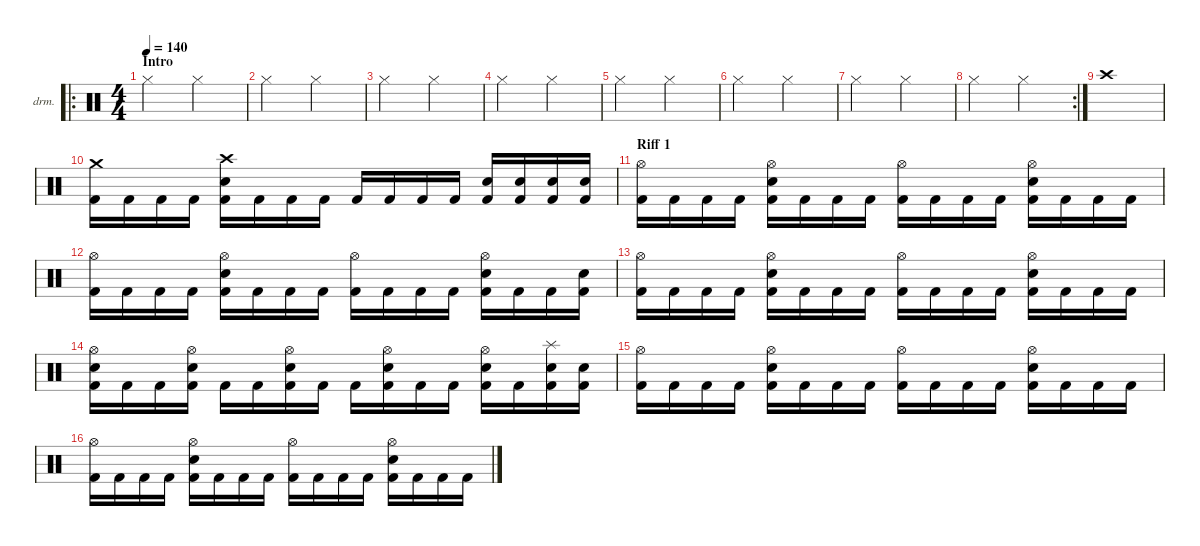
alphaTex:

\defaultSystemsLayout 4
\hideDynamics
\bracketExtendMode nobrackets
\firstSystemTrackNameOrientation horizontal
\otherSystemsTrackNameOrientation horizontal
\track ("Drumkit" "drm.") {instrument percussion}
\staff {score}
\articulation defaults
\ro
\ts (4 4)
\beaming (8 2 2 2 2)
\section ("" "Intro")
\tempo 140
\clef neutral
\ks c "Hi-Hat (closed)".2{dy mf} "Hi-Hat (closed)".2
|
"Hi-Hat (closed)".2 "Hi-Hat (closed)".2 |
"Hi-Hat (closed)".2 "Hi-Hat (closed)".2 |
"Hi-Hat (closed)".2 "Hi-Hat (closed)".2 |
"Hi-Hat (closed)".2 "Hi-Hat (closed)".2 |
"Hi-Hat (closed)".2 "Hi-Hat (closed)".2 |
"Hi-Hat (closed)".2 "Hi-Hat (closed)".2 |
\rc 2 "Hi-Hat (closed)".2 "Hi-Hat (closed)".2
|
"Crash high (hit)".1 |
("Crash medium (hit)" "Kick (hit) 2").16{dy f} "Kick (hit) 2".16 "Kick (hit) 2".16 "Kick (hit) 2".16 ("Crash high (hit)" "Snare (hit) 2" "Kick (hit) 2").16 "Kick (hit) 2".16 "Kick (hit) 2".16 "Kick (hit) 2".16 "Kick (hit) 2".16 "Kick (hit) 2".16 "Kick (hit) 2".16 "Kick (hit) 2".16 ("Snare (hit) 2" "Kick (hit) 2").16 ("Snare (hit) 2" "Kick (hit) 2").16 ("Snare (hit) 2" "Kick (hit) 2").16 ("Snare (hit) 2" "Kick (hit) 2").16 |
\section ("" "Riff 1")
("Hi-Hat (open)" "Kick (hit) 2").16{dy ff} "Kick (hit) 2".16 "Kick (hit) 2".16 "Kick (hit) 2".16 ("Hi-Hat (open)" "Snare (hit) 2" "Kick (hit) 2").16 "Kick (hit) 2".16 "Kick (hit) 2".16 "Kick (hit) 2".16 ("Hi-Hat (open)" "Kick (hit) 2").16 "Kick (hit) 2".16 "Kick (hit) 2".16 "Kick (hit) 2".16 ("Hi-Hat (open)" "Snare (hit) 2" "Kick (hit) 2").16 "Kick (hit) 2".16 "Kick (hit) 2".16 "Kick (hit) 2".16 |
("Hi-Hat (open)" "Kick (hit) 2").16 "Kick (hit) 2".16 "Kick (hit) 2".16 "Kick (hit) 2".16 ("Hi-Hat (open)" "Snare (hit) 2" "Kick (hit) 2").16 "Kick (hit) 2".16 "Kick (hit) 2".16 "Kick (hit) 2".16 ("Hi-Hat (open)" "Kick (hit) 2").16 "Kick (hit) 2".16 "Kick (hit) 2".16 "Kick (hit) 2".16 ("Hi-Hat (open)" "Snare (hit) 2" "Kick (hit) 2").16 "Kick (hit) 2".16 "Kick (hit) 2".16 ("Snare (hit) 2" "Kick (hit) 2").16 |
("Hi-Hat (open)" "Kick (hit) 2").16 "Kick (hit) 2".16 "Kick (hit) 2".16 "Kick (hit) 2".16 ("Hi-Hat (open)" "Snare (hit) 2" "Kick (hit) 2").16 "Kick (hit) 2".16 "Kick (hit) 2".16 "Kick (hit) 2".16 ("Hi-Hat (open)" "Kick (hit) 2").16 "Kick (hit) 2".16 "Kick (hit) 2".16 "Kick (hit) 2".16 ("Hi-Hat (open)" "Snare (hit) 2" "Kick (hit) 2").16 "Kick (hit) 2".16 "Kick (hit) 2".16 "Kick (hit) 2".16 |
("Hi-Hat (open)" "Snare (hit) 2" "Kick (hit) 2").16 "Kick (hit) 2".16 "Kick (hit) 2".16 ("Hi-Hat (open)" "Snare (hit) 2" "Kick (hit) 2").16 "Kick (hit) 2".16 "Kick (hit) 2".16 ("Hi-Hat (open)" "Snare (hit) 2" "Kick (hit) 2").16 "Kick (hit) 2".16 "Kick (hit) 2".16 ("Hi-Hat (open)" "Snare (hit) 2" "Kick (hit) 2").16 "Kick (hit) 2".16 "Kick (hit) 2".16 ("Hi-Hat (open)" "Snare (hit) 2" "Kick (hit) 2").16 "Kick (hit) 2".16 ("Splash (hit)" "Snare (hit) 2" "Kick (hit) 2").16 ("Snare (hit) 2" "Kick (hit) 2").16 |
("Hi-Hat (open)" "Kick (hit) 2").16 "Kick (hit) 2".16 "Kick (hit) 2".16 "Kick (hit) 2".16 ("Hi-Hat (open)" "Snare (hit) 2" "Kick (hit) 2").16 "Kick (hit) 2".16 "Kick (hit) 2".16 "Kick (hit) 2".16 ("Hi-Hat (open)" "Kick (hit) 2").16 "Kick (hit) 2".16 "Kick (hit) 2".16 "Kick (hit) 2".16 ("Hi-Hat (open)" "Snare (hit) 2" "Kick (hit) 2").16 "Kick (hit) 2".16 "Kick (hit) 2".16 "Kick (hit) 2".16 |
("Hi-Hat (open)" "Kick (hit) 2").16 "Kick (hit) 2".16 "Kick (hit) 2".16 "Kick (hit) 2".16 ("Hi-Hat (open)" "Snare (hit) 2" "Kick (hit) 2").16 "Kick (hit) 2".16 "Kick (hit) 2".16 "Kick (hit) 2".16 ("Hi-Hat (open)" "Kick (hit) 2").16 "Kick (hit) 2".16 "Kick (hit) 2".16 "Kick (hit) 2".16 ("Hi-Hat (open)" "Snare (hit) 2" "Kick (hit) 2").16 "Kick (hit) 2".16 "Kick (hit) 2".16 "Kick (hit) 2".16
